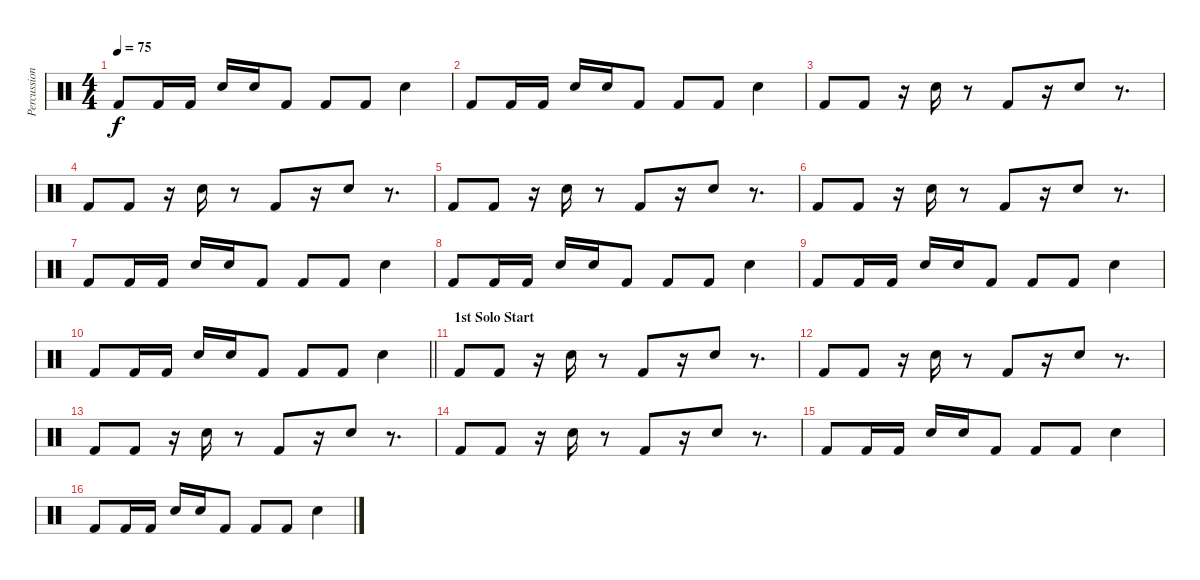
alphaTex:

\track ("Percussions" "Percussion") {instrument percussion}
\staff {score}
\articulation defaults
\ts (4 4)
\tempo 75
\clef neutral
\ks c "Kick (hit) 2".8{dy f} "Kick (hit) 2".16 "Kick (hit) 2".16 "Electric Snare (hit)".16 "Electric Snare (hit)".16 "Kick (hit) 2".8 "Kick (hit) 2".8 "Kick (hit) 2".8 "Electric Snare (hit)".4
|
"Kick (hit) 2".8 "Kick (hit) 2".16 "Kick (hit) 2".16 "Electric Snare (hit)".16 "Electric Snare (hit)".16 "Kick (hit) 2".8 "Kick (hit) 2".8 "Kick (hit) 2".8 "Electric Snare (hit)".4 |
"Kick (hit) 2".8 "Kick (hit) 2".8 r.16 "Electric Snare (hit)".16 r.8 "Kick (hit) 2".8 r.16 "Electric Snare (hit)".8 r.8{d} |
"Kick (hit) 2".8 "Kick (hit) 2".8 r.16 "Electric Snare (hit)".16 r.8 "Kick (hit) 2".8 r.16 "Electric Snare (hit)".8 r.8{d} |
"Kick (hit) 2".8 "Kick (hit) 2".8 r.16 "Electric Snare (hit)".16 r.8 "Kick (hit) 2".8 r.16 "Electric Snare (hit)".8 r.8{d} |
"Kick (hit) 2".8 "Kick (hit) 2".8 r.16 "Electric Snare (hit)".16 r.8 "Kick (hit) 2".8 r.16 "Electric Snare (hit)".8 r.8{d} |
"Kick (hit) 2".8 "Kick (hit) 2".16 "Kick (hit) 2".16 "Electric Snare (hit)".16 "Electric Snare (hit)".16 "Kick (hit) 2".8 "Kick (hit) 2".8 "Kick (hit) 2".8 "Electric Snare (hit)".4 |
"Kick (hit) 2".8 "Kick (hit) 2".16 "Kick (hit) 2".16 "Electric Snare (hit)".16 "Electric Snare (hit)".16 "Kick (hit) 2".8 "Kick (hit) 2".8 "Kick (hit) 2".8 "Electric Snare (hit)".4 |
"Kick (hit) 2".8 "Kick (hit) 2".16 "Kick (hit) 2".16 "Electric Snare (hit)".16 "Electric Snare (hit)".16 "Kick (hit) 2".8 "Kick (hit) 2".8 "Kick (hit) 2".8 "Electric Snare (hit)".4 |
\barLineRight lightlight "Kick (hit) 2".8 "Kick (hit) 2".16 "Kick (hit) 2".16 "Electric Snare (hit)".16 "Electric Snare (hit)".16 "Kick (hit) 2".8 "Kick (hit) 2".8 "Kick (hit) 2".8 "Electric Snare (hit)".4
|
\section ("" "1st Solo Start")
"Kick (hit) 2".8 "Kick (hit) 2".8 r.16 "Electric Snare (hit)".16 r.8 "Kick (hit) 2".8 r.16 "Electric Snare (hit)".8 r.8{d} |
"Kick (hit) 2".8 "Kick (hit) 2".8 r.16 "Electric Snare (hit)".16 r.8 "Kick (hit) 2".8 r.16 "Electric Snare (hit)".8 r.8{d} |
"Kick (hit) 2".8 "Kick (hit) 2".8 r.16 "Electric Snare (hit)".16 r.8 "Kick (hit) 2".8 r.16 "Electric Snare (hit)".8 r.8{d} |
"Kick (hit) 2".8 "Kick (hit) 2".8 r.16 "Electric Snare (hit)".16 r.8 "Kick (hit) 2".8 r.16 "Electric Snare (hit)".8 r.8{d} |
"Kick (hit) 2".8 "Kick (hit) 2".16 "Kick (hit) 2".16 "Electric Snare (hit)".16 "Electric Snare (hit)".16 "Kick (hit) 2".8 "Kick (hit) 2".8 "Kick (hit) 2".8 "Electric Snare (hit)".4 |
"Kick (hit) 2".8 "Kick (hit) 2".16 "Kick (hit) 2".16 "Electric Snare (hit)".16 "Electric Snare (hit)".16 "Kick (hit) 2".8 "Kick (hit) 2".8 "Kick (hit) 2".8 "Electric Snare (hit)".4
